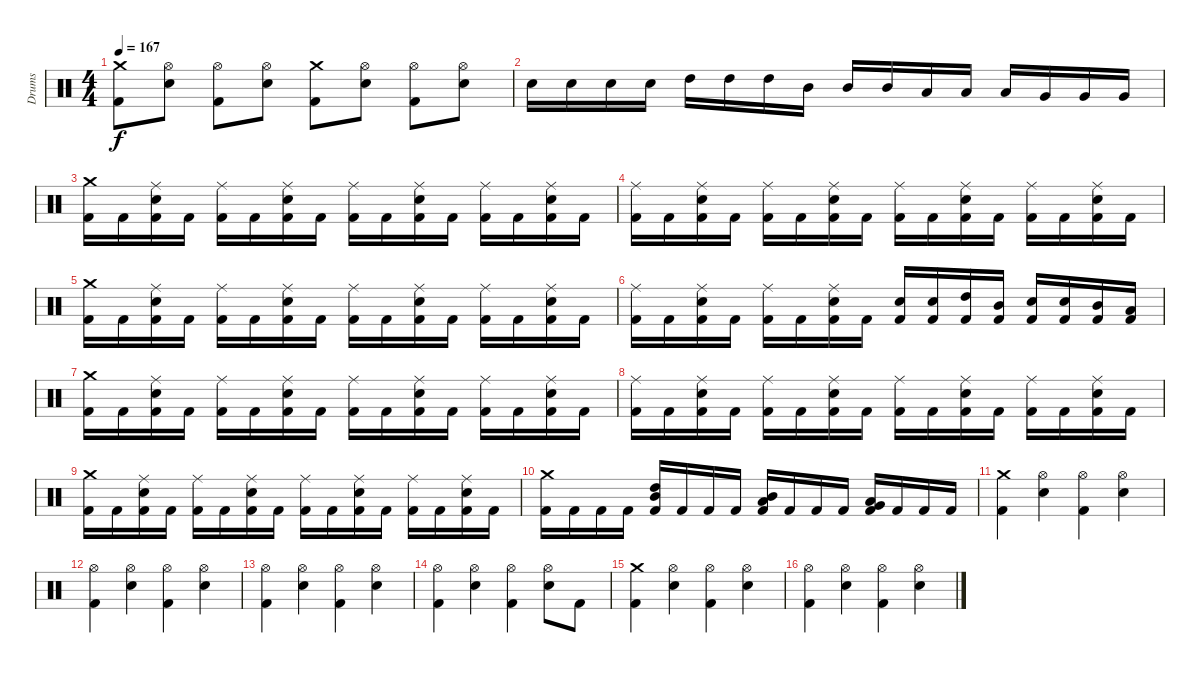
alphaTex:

\track ("Drums" "Drums") {instrument percussion}
\staff {score}
\articulation defaults
\ts (4 4)
\tempo 167
\clef neutral
\ks c
("Kick (hit) 2" "Crash medium (hit)").8{dy f} ("Electric Snare (hit)" "Hi-Hat (open)").8 ("Kick (hit) 2" "Hi-Hat (open)").8 ("Electric Snare (hit)" "Hi-Hat (open)").8 ("Kick (hit) 2" "Crash medium (hit)").8 ("Electric Snare (hit)" "Hi-Hat (open)").8 ("Kick (hit) 2" "Hi-Hat (open)").8 ("Electric Snare (hit)" "Hi-Hat (open)").8 |
"Electric Snare (hit)".16 "Electric Snare (hit)".16 "Electric Snare (hit)".16 "Electric Snare (hit)".16 "High Tom (hit)".16 "High Tom (hit)".16 "High Tom (hit)".16 "Mid Tom (hit)".16 "Mid Tom (hit)".16 "Mid Tom (hit)".16 "Low Tom (hit)".16 "Low Tom (hit)".16 "Low Tom (hit)".16 "Very Low Tom (hit)".16 "Very Low Tom (hit)".16 "Very Low Tom (hit)".16 |
("Kick (hit) 2" "Crash medium (hit)").16 "Kick (hit) 2".16 ("Kick (hit) 2" "Electric Snare (hit)" "Ride (middle)").16 "Kick (hit) 2".16 ("Kick (hit) 2" "Ride (middle)").16 "Kick (hit) 2".16 ("Kick (hit) 2" "Electric Snare (hit)" "Ride (middle)").16 "Kick (hit) 2".16 ("Kick (hit) 2" "Ride (middle)").16 "Kick (hit) 2".16 ("Kick (hit) 2" "Electric Snare (hit)" "Ride (middle)").16 "Kick (hit) 2".16 ("Kick (hit) 2" "Ride (middle)").16 "Kick (hit) 2".16 ("Kick (hit) 2" "Electric Snare (hit)" "Ride (middle)").16 "Kick (hit) 2".16 |
("Kick (hit) 2" "Ride (middle)").16 "Kick (hit) 2".16 ("Kick (hit) 2" "Electric Snare (hit)" "Ride (middle)").16 "Kick (hit) 2".16 ("Kick (hit) 2" "Ride (middle)").16 "Kick (hit) 2".16 ("Kick (hit) 2" "Electric Snare (hit)" "Ride (middle)").16 "Kick (hit) 2".16 ("Kick (hit) 2" "Ride (middle)").16 "Kick (hit) 2".16 ("Kick (hit) 2" "Electric Snare (hit)" "Ride (middle)").16 "Kick (hit) 2".16 ("Kick (hit) 2" "Ride (middle)").16 "Kick (hit) 2".16 ("Kick (hit) 2" "Electric Snare (hit)" "Ride (middle)").16 "Kick (hit) 2".16 |
("Kick (hit) 2" "Crash medium (hit)").16 "Kick (hit) 2".16 ("Kick (hit) 2" "Electric Snare (hit)" "Ride (middle)").16 "Kick (hit) 2".16 ("Kick (hit) 2" "Ride (middle)").16 "Kick (hit) 2".16 ("Kick (hit) 2" "Electric Snare (hit)" "Ride (middle)").16 "Kick (hit) 2".16 ("Kick (hit) 2" "Ride (middle)").16 "Kick (hit) 2".16 ("Kick (hit) 2" "Electric Snare (hit)" "Ride (middle)").16 "Kick (hit) 2".16 ("Kick (hit) 2" "Ride (middle)").16 "Kick (hit) 2".16 ("Kick (hit) 2" "Electric Snare (hit)" "Ride (middle)").16 "Kick (hit) 2".16 |
("Kick (hit) 2" "Ride (middle)").16 "Kick (hit) 2".16 ("Kick (hit) 2" "Electric Snare (hit)" "Ride (middle)").16 "Kick (hit) 2".16 ("Kick (hit) 2" "Ride (middle)").16 "Kick (hit) 2".16 ("Kick (hit) 2" "Electric Snare (hit)" "Ride (middle)").16 "Kick (hit) 2".16 ("Kick (hit) 2" "Electric Snare (hit)").16 ("Kick (hit) 2" "Electric Snare (hit)").16 ("Kick (hit) 2" "High Tom (hit)").16 ("Kick (hit) 2" "Mid Tom (hit)").16 ("Kick (hit) 2" "Electric Snare (hit)").16 ("Kick (hit) 2" "Electric Snare (hit)").16 ("Kick (hit) 2" "Mid Tom (hit)").16 ("Kick (hit) 2" "Low Tom (hit)").16 |
("Kick (hit) 2" "Crash medium (hit)").16 "Kick (hit) 2".16 ("Kick (hit) 2" "Electric Snare (hit)" "Ride (middle)").16 "Kick (hit) 2".16 ("Kick (hit) 2" "Ride (middle)").16 "Kick (hit) 2".16 ("Kick (hit) 2" "Electric Snare (hit)" "Ride (middle)").16 "Kick (hit) 2".16 ("Kick (hit) 2" "Ride (middle)").16 "Kick (hit) 2".16 ("Kick (hit) 2" "Electric Snare (hit)" "Ride (middle)").16 "Kick (hit) 2".16 ("Kick (hit) 2" "Ride (middle)").16 "Kick (hit) 2".16 ("Kick (hit) 2" "Electric Snare (hit)" "Ride (middle)").16 "Kick (hit) 2".16 |
("Kick (hit) 2" "Ride (middle)").16 "Kick (hit) 2".16 ("Kick (hit) 2" "Electric Snare (hit)" "Ride (middle)").16 "Kick (hit) 2".16 ("Kick (hit) 2" "Ride (middle)").16 "Kick (hit) 2".16 ("Kick (hit) 2" "Electric Snare (hit)" "Ride (middle)").16 "Kick (hit) 2".16 ("Kick (hit) 2" "Ride (middle)").16 "Kick (hit) 2".16 ("Kick (hit) 2" "Electric Snare (hit)" "Ride (middle)").16 "Kick (hit) 2".16 ("Kick (hit) 2" "Ride (middle)").16 "Kick (hit) 2".16 ("Kick (hit) 2" "Electric Snare (hit)" "Ride (middle)").16 "Kick (hit) 2".16 |
("Kick (hit) 2" "Crash medium (hit)").16 "Kick (hit) 2".16 ("Kick (hit) 2" "Electric Snare (hit)" "Ride (middle)").16 "Kick (hit) 2".16 ("Kick (hit) 2" "Ride (middle)").16 "Kick (hit) 2".16 ("Kick (hit) 2" "Electric Snare (hit)" "Ride (middle)").16 "Kick (hit) 2".16 ("Kick (hit) 2" "Ride (middle)").16 "Kick (hit) 2".16 ("Kick (hit) 2" "Electric Snare (hit)" "Ride (middle)").16 "Kick (hit) 2".16 ("Kick (hit) 2" "Ride (middle)").16 "Kick (hit) 2".16 ("Kick (hit) 2" "Electric Snare (hit)" "Ride (middle)").16 "Kick (hit) 2".16 |
("Kick (hit) 2" "Crash medium (hit)").16 "Kick (hit) 2".16 "Kick (hit) 2".16 "Kick (hit) 2".16 ("Kick (hit) 2" "Mid Tom (hit)" "High Tom (hit)").16 "Kick (hit) 2".16 "Kick (hit) 2".16 "Kick (hit) 2".16 ("Kick (hit) 2" "Low Tom (hit)" "Mid Tom (hit)").16 "Kick (hit) 2".16 "Kick (hit) 2".16 "Kick (hit) 2".16 ("Kick (hit) 2" "Very Low Tom (hit)" "Low Tom (hit)").16 "Kick (hit) 2".16 "Kick (hit) 2".16 "Kick (hit) 2".16 |
("Kick (hit) 2" "Crash medium (hit)").4 ("Electric Snare (hit)" "Hi-Hat (open)").4 ("Kick (hit) 2" "Hi-Hat (open)").4 ("Electric Snare (hit)" "Hi-Hat (open)").4 |
("Kick (hit) 2" "Hi-Hat (open)").4 ("Electric Snare (hit)" "Hi-Hat (open)").4 ("Kick (hit) 2" "Hi-Hat (open)").4 ("Electric Snare (hit)" "Hi-Hat (open)").4 |
("Kick (hit) 2" "Hi-Hat (open)").4 ("Electric Snare (hit)" "Hi-Hat (open)").4 ("Kick (hit) 2" "Hi-Hat (open)").4 ("Electric Snare (hit)" "Hi-Hat (open)").4 |
("Kick (hit) 2" "Hi-Hat (open)").4 ("Electric Snare (hit)" "Hi-Hat (open)").4 ("Kick (hit) 2" "Hi-Hat (open)").4 ("Electric Snare (hit)" "Hi-Hat (open)").8 "Kick (hit) 2".8 |
("Kick (hit) 2" "Crash medium (hit)").4 ("Electric Snare (hit)" "Hi-Hat (open)").4 ("Kick (hit) 2" "Hi-Hat (open)").4 ("Electric Snare (hit)" "Hi-Hat (open)").4 |
("Kick (hit) 2" "Hi-Hat (open)").4 ("Electric Snare (hit)" "Hi-Hat (open)").4 ("Kick (hit) 2" "Hi-Hat (open)").4 ("Electric Snare (hit)" "Hi-Hat (open)").4
